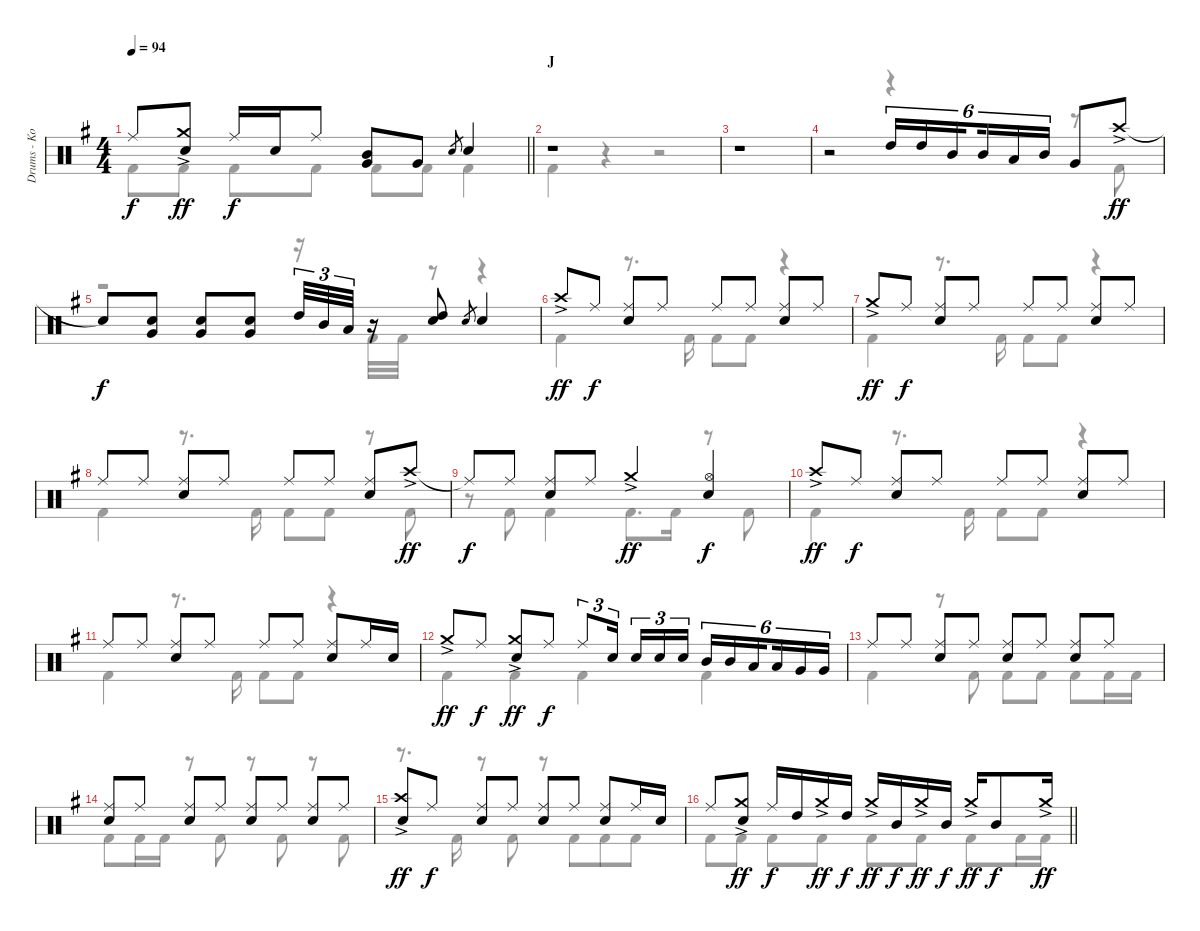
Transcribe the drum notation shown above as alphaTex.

\track ("Drums - Koji Hasegawa" "Drums - Ko") {instrument percussion}
\staff {score}
\articulation defaults
\voice
\ts (4 4)
\tempo 94
\clef neutral
\barLineRight lightlight
\ks g "Ride (middle)".8{dy f}
("Crash medium (hit)"{ac} "Electric Snare (hit)").8{dy ff} "Ride (middle)".16{dy f} "Electric Snare (hit)".16 "Ride (middle)".8 ("Mid Tom (hit)" "Very Low Tom (hit)").8 "Very Low Tom (hit)".8 "Electric Snare (hit)".8{gr} "Electric Snare (hit)".4 |
\section ("" "J")
r.1 |
r.1 |
r.2 "High Tom (hit)".16{tu (6 4)} "High Tom (hit)".16{tu (6 4)} "Mid Tom (hit)".16{tu (6 4) beam splitsecondary} "Mid Tom (hit)".16{tu (6 4)} "Low Tom (hit)".16{tu (6 4)} "Mid Tom (hit)".16{tu (6 4)} "Very Low Tom (hit)".8 "Crash high (hit)"{ac}.8{dy ff} |
"Snare (hit)"{t}.8{dy f} ("Very Low Tom (hit)" "Electric Snare (hit)").8 ("Very Low Tom (hit)" "Electric Snare (hit)").8 ("Very Low Tom (hit)" "Electric Snare (hit)").8 "High Tom (hit)".32{tu (3 2)} "Mid Tom (hit)".32{tu (3 2)} "Low Tom (hit)".32{tu (3 2)} r.16 ("High Tom (hit)" "Electric Snare (hit)").8 "Electric Snare (hit)".8{gr} "Electric Snare (hit)".4 |
"Crash high (hit)"{ac}.8{dy ff} "Ride (middle)".8{dy f} ("Ride (middle)" "Electric Snare (hit)").8 "Ride (middle)".8 "Ride (middle)".8 "Ride (middle)".8 ("Ride (middle)" "Electric Snare (hit)").8 "Ride (middle)".8 |
"Crash medium (hit)"{ac}.8{dy ff} "Ride (middle)".8{dy f} ("Ride (middle)" "Electric Snare (hit)").8 "Ride (middle)".8 "Ride (middle)".8 "Ride (middle)".8 ("Ride (middle)" "Electric Snare (hit)").8 "Ride (middle)".8 |
"Ride (middle)".8 "Ride (middle)".8 ("Ride (middle)" "Electric Snare (hit)").8 "Ride (middle)".8 "Ride (middle)".8 "Ride (middle)".8 ("Ride (middle)" "Electric Snare (hit)").8 "Crash high (hit)"{ac}.8{dy ff} |
"Ride (middle)"{t}.8{dy f} "Ride (middle)".8 ("Ride (middle)" "Electric Snare (hit)").8 "Ride (middle)".8 "Crash medium (hit)"{ac}.4{dy ff} ("Hi-Hat (open)" "Electric Snare (hit)").4{dy f} |
"Crash high (hit)"{ac}.8{dy ff} "Ride (middle)".8{dy f} ("Ride (middle)" "Electric Snare (hit)").8 "Ride (middle)".8 "Ride (middle)".8 "Ride (middle)".8 ("Ride (middle)" "Electric Snare (hit)").8 "Ride (middle)".8 |
"Ride (middle)".8 "Ride (middle)".8 ("Ride (middle)" "Electric Snare (hit)").8 "Ride (middle)".8 "Ride (middle)".8 "Ride (middle)".8 ("Ride (middle)" "Electric Snare (hit)").8 "Ride (middle)".16 "Electric Snare (hit)".16 |
"Crash medium (hit)"{ac}.8{dy ff} "Ride (middle)".8{dy f} ("Crash medium (hit)"{ac} "Electric Snare (hit)").8{dy ff} "Ride (middle)".8{dy f} "Ride (middle)".8{tu (3 2)} "Electric Snare (hit)".16{tu (3 2) beam splitsecondary} "Electric Snare (hit)".16{tu (3 2)} "Electric Snare (hit)".16{tu (3 2)} "Electric Snare (hit)".16{tu (3 2)} "Mid Tom (hit)".16{tu (6 4)} "Mid Tom (hit)".16{tu (6 4)} "Low Tom (hit)".16{tu (6 4) beam splitsecondary} "Low Tom (hit)".16{tu (6 4)} "Very Low Tom (hit)".16{tu (6 4)} "Very Low Tom (hit)".16{tu (6 4)} |
"Ride (middle)".8 "Ride (middle)".8 ("Ride (middle)" "Electric Snare (hit)").8 "Ride (middle)".8 ("Ride (middle)" "Electric Snare (hit)").8 "Ride (middle)".8 ("Ride (middle)" "Electric Snare (hit)").8 "Ride (middle)".8 |
("Ride (middle)" "Electric Snare (hit)").8 "Ride (middle)".8 ("Ride (middle)" "Electric Snare (hit)").8 "Ride (middle)".8 ("Ride (middle)" "Electric Snare (hit)").8 "Ride (middle)".8 ("Ride (middle)" "Electric Snare (hit)").8 "Ride (middle)".8 |
("Crash high (hit)"{ac} "Electric Snare (hit)").8{dy ff} "Ride (middle)".8{dy f} ("Ride (middle)" "Electric Snare (hit)").8 "Ride (middle)".8 ("Ride (middle)" "Electric Snare (hit)").8 "Ride (middle)".8 ("Ride (middle)" "Electric Snare (hit)").8 "Ride (middle)".16 "Electric Snare (hit)".16 |
\barLineRight lightlight "Ride (middle)".8
("Crash medium (hit)"{ac} "Electric Snare (hit)").8{dy ff} "Ride (middle)".16{dy f} "High Tom (hit)".16 "Crash medium (hit)"{ac}.16{dy ff} "High Tom (hit)".16{dy f} "Crash medium (hit)"{ac}.16{dy ff} "Mid Tom (hit)".16{dy f} "Crash medium (hit)"{ac}.16{dy ff} "Mid Tom (hit)".16{dy f} "Crash medium (hit)"{ac}.16{dy ff} "Mid Tom (hit)".8{dy f} "Crash medium (hit)"{ac}.16{dy ff}
\voice
\clef neutral
\ottava regular
\simile none
\barLineRight lightlight
\ks g "Kick (hit) 2".8{dy f} "Kick (hit) 2".8 "Kick (hit) 2".8 "Kick (hit) 2".8 "Kick (hit) 2".8 "Kick (hit) 2".8 "Kick (hit) 2".4
|
"Kick (hit) 2".4 r.4 r.2 |
|
r.2 r.4 r.8 "Kick (hit) 2".8 |
r.2 r.16 "Kick (hit) 2".32 "Kick (hit) 2".32 r.8 r.4 |
"Kick (hit) 2".4 r.8{d} "Kick (hit) 2".16 "Kick (hit) 2".8 "Kick (hit) 2".8 r.4 |
"Kick (hit) 2".4 r.8{d} "Kick (hit) 2".16 "Kick (hit) 2".8 "Kick (hit) 2".8 r.4 |
"Kick (hit) 2".4 r.8{d} "Kick (hit) 2".16 "Kick (hit) 2".8 "Kick (hit) 2".8 r.8 "Kick (hit) 2".8 |
r.8 "Kick (hit) 2".8 "Kick (hit) 2".4 "Kick (hit) 2".8{d} "Kick (hit) 2".16 r.8 "Kick (hit) 2".8 |
"Kick (hit) 2".4 r.8{d} "Kick (hit) 2".16 "Kick (hit) 2".8 "Kick (hit) 2".8 r.4 |
"Kick (hit) 2".4 r.8{d} "Kick (hit) 2".16 "Kick (hit) 2".8 "Kick (hit) 2".8 r.4 |
"Kick (hit) 2".4 "Kick (hit) 2".4 "Kick (hit) 2".4 "Kick (hit) 2".4 |
"Kick (hit) 2".4 r.8 "Kick (hit) 2".8 "Kick (hit) 2".8 "Kick (hit) 2".8 "Kick (hit) 2".8 "Kick (hit) 2".16 "Kick (hit) 2".16 |
"Kick (hit) 2".8 "Kick (hit) 2".16 "Kick (hit) 2".16 r.8 "Kick (hit) 2".8 r.8 "Kick (hit) 2".8 r.8 "Kick (hit) 2".8 |
r.8{d} "Kick (hit) 2".16 r.8 "Kick (hit) 2".8 r.8 "Kick (hit) 2".8{beam merge} "Kick (hit) 2".8 "Kick (hit) 2".8 |
\barLineRight lightlight "Kick (hit) 2".8 "Kick (hit) 2".8 "Kick (hit) 2".8 "Kick (hit) 2".8 "Kick (hit) 2".8 "Kick (hit) 2".8 "Kick (hit) 2".8 "Kick (hit) 2".16 "Kick (hit) 2".16
